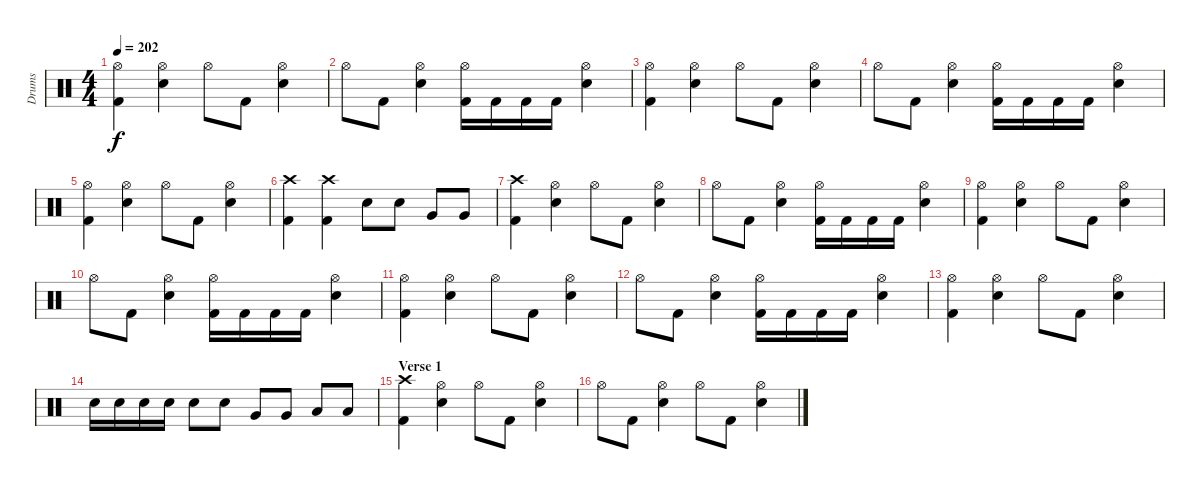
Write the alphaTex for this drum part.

\track ("Drums" "Drums") {instrument percussion}
\staff {score}
\articulation defaults
\ts (4 4)
\tempo 202
\clef neutral
\ks c
("Hi-Hat (open)" "Kick (hit) 2").4{dy f} ("Hi-Hat (open)" "Electric Snare (hit)").4 "Hi-Hat (open)".8 "Kick (hit) 2".8 ("Hi-Hat (open)" "Electric Snare (hit)").4 |
"Hi-Hat (open)".8 "Kick (hit) 2".8 ("Hi-Hat (open)" "Electric Snare (hit)").4 ("Hi-Hat (open)" "Kick (hit) 2").16 "Kick (hit) 2".16 "Kick (hit) 2".16 "Kick (hit) 2".16 ("Hi-Hat (open)" "Electric Snare (hit)").4 |
("Hi-Hat (open)" "Kick (hit) 2").4 ("Hi-Hat (open)" "Electric Snare (hit)").4 "Hi-Hat (open)".8 "Kick (hit) 2".8 ("Hi-Hat (open)" "Electric Snare (hit)").4 |
"Hi-Hat (open)".8 "Kick (hit) 2".8 ("Hi-Hat (open)" "Electric Snare (hit)").4 ("Hi-Hat (open)" "Kick (hit) 2").16 "Kick (hit) 2".16 "Kick (hit) 2".16 "Kick (hit) 2".16 ("Hi-Hat (open)" "Electric Snare (hit)").4 |
("Hi-Hat (open)" "Kick (hit) 2").4 ("Hi-Hat (open)" "Electric Snare (hit)").4 "Hi-Hat (open)".8 "Kick (hit) 2".8 ("Hi-Hat (open)" "Electric Snare (hit)").4 |
("Crash high (hit)" "Kick (hit) 2").4 ("Crash high (hit)" "Kick (hit) 2").4 "Electric Snare (hit)".8 "Electric Snare (hit)".8 "Very Low Tom (hit)".8 "Very Low Tom (hit)".8 |
("Crash high (hit)" "Kick (hit) 2").4 ("Hi-Hat (open)" "Electric Snare (hit)").4 "Hi-Hat (open)".8 "Kick (hit) 2".8 ("Hi-Hat (open)" "Electric Snare (hit)").4 |
"Hi-Hat (open)".8 "Kick (hit) 2".8 ("Hi-Hat (open)" "Electric Snare (hit)").4 ("Hi-Hat (open)" "Kick (hit) 2").16 "Kick (hit) 2".16 "Kick (hit) 2".16 "Kick (hit) 2".16 ("Hi-Hat (open)" "Electric Snare (hit)").4 |
("Hi-Hat (open)" "Kick (hit) 2").4 ("Hi-Hat (open)" "Electric Snare (hit)").4 "Hi-Hat (open)".8 "Kick (hit) 2".8 ("Hi-Hat (open)" "Electric Snare (hit)").4 |
"Hi-Hat (open)".8 "Kick (hit) 2".8 ("Hi-Hat (open)" "Electric Snare (hit)").4 ("Hi-Hat (open)" "Kick (hit) 2").16 "Kick (hit) 2".16 "Kick (hit) 2".16 "Kick (hit) 2".16 ("Hi-Hat (open)" "Electric Snare (hit)").4 |
("Hi-Hat (open)" "Kick (hit) 2").4 ("Hi-Hat (open)" "Electric Snare (hit)").4 "Hi-Hat (open)".8 "Kick (hit) 2".8 ("Hi-Hat (open)" "Electric Snare (hit)").4 |
"Hi-Hat (open)".8 "Kick (hit) 2".8 ("Hi-Hat (open)" "Electric Snare (hit)").4 ("Hi-Hat (open)" "Kick (hit) 2").16 "Kick (hit) 2".16 "Kick (hit) 2".16 "Kick (hit) 2".16 ("Hi-Hat (open)" "Electric Snare (hit)").4 |
("Hi-Hat (open)" "Kick (hit) 2").4 ("Hi-Hat (open)" "Electric Snare (hit)").4 "Hi-Hat (open)".8 "Kick (hit) 2".8 ("Hi-Hat (open)" "Electric Snare (hit)").4 |
"Electric Snare (hit)".16 "Electric Snare (hit)".16 "Electric Snare (hit)".16 "Electric Snare (hit)".16 "Electric Snare (hit)".8 "Electric Snare (hit)".8 "Very Low Tom (hit)".8 "Very Low Tom (hit)".8 "Low Floor Tom (hit)".8 "Low Floor Tom (hit)".8 |
\section ("" "Verse 1")
("Crash high (hit)" "Kick (hit) 2").4 ("Hi-Hat (open)" "Electric Snare (hit)").4 "Hi-Hat (open)".8 "Kick (hit) 2".8 ("Hi-Hat (open)" "Electric Snare (hit)").4 |
"Hi-Hat (open)".8 "Kick (hit) 2".8 ("Hi-Hat (open)" "Electric Snare (hit)").4 "Hi-Hat (open)".8 "Kick (hit) 2".8 ("Hi-Hat (open)" "Electric Snare (hit)").4
